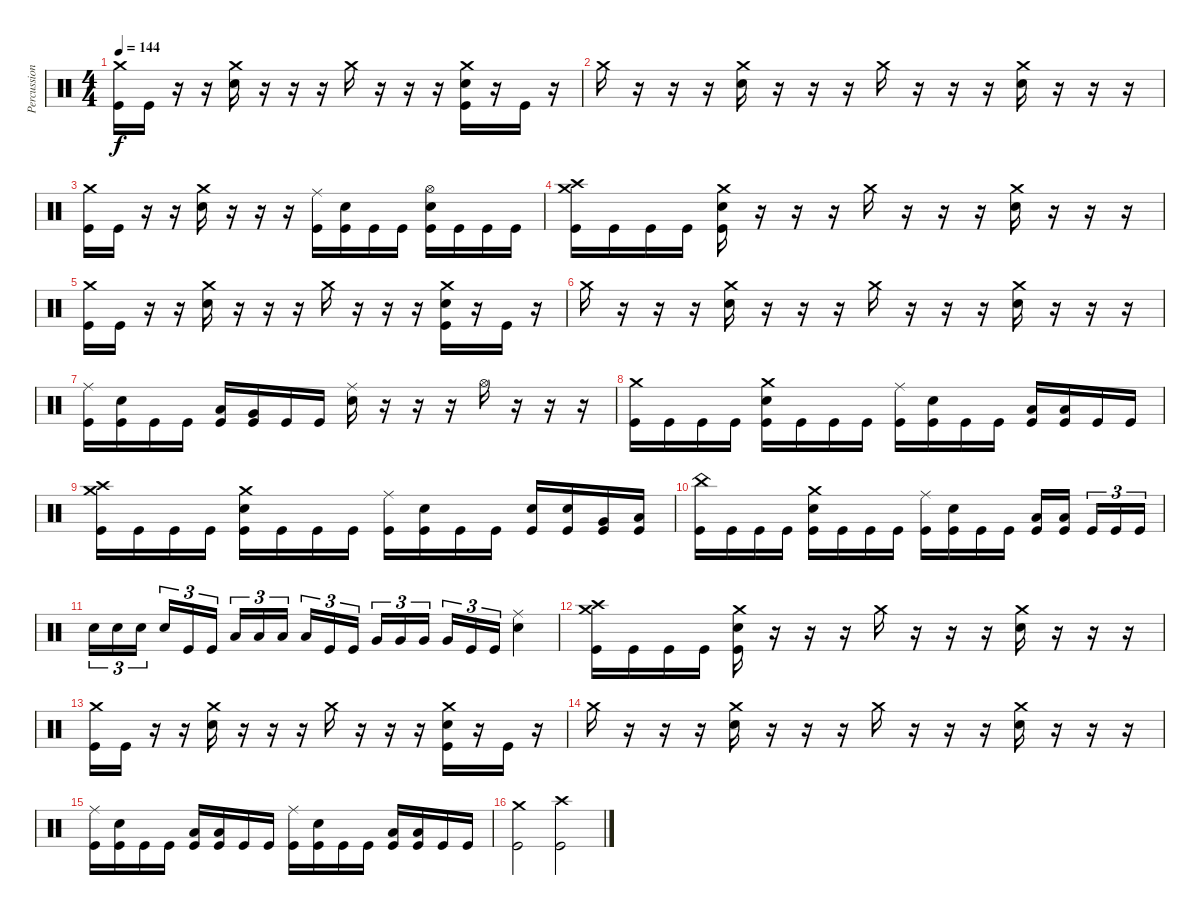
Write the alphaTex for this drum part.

\track ("Percussion" "Percussion") {instrument percussion}
\staff {score}
\articulation defaults
\ts (4 4)
\tempo 144
\clef neutral
\ks c
("Crash medium (hit)" "Kick (hit)").16{dy f} "Kick (hit)".16 r.16 r.16 ("Crash medium (hit)" "Electric Snare (hit)").16 r.16 r.16 r.16 "Crash medium (hit)".16 r.16 r.16 r.16 ("Crash medium (hit)" "Electric Snare (hit)" "Kick (hit)").16 r.16 "Kick (hit)".16 r.16 |
"Crash medium (hit)".16 r.16 r.16 r.16 ("Crash medium (hit)" "Electric Snare (hit)").16 r.16 r.16 r.16 "Crash medium (hit)".16 r.16 r.16 r.16 ("Crash medium (hit)" "Electric Snare (hit)").16 r.16 r.16 r.16 |
("Crash medium (hit)" "Kick (hit)").16 "Kick (hit)".16 r.16 r.16 ("Crash medium (hit)" "Electric Snare (hit)").16 r.16 r.16 r.16 ("Ride (middle)" "Kick (hit)").16 ("Electric Snare (hit)" "Kick (hit)").16 "Kick (hit)".16 "Kick (hit)".16 ("Hi-Hat (open)" "Electric Snare (hit)" "Kick (hit)").16 "Kick (hit)".16 "Kick (hit)".16 "Kick (hit)".16 |
("Crash high (hit)" "Crash medium (hit)" "Kick (hit)").16 "Kick (hit)".16 "Kick (hit)".16 "Kick (hit)".16 ("Crash medium (hit)" "Electric Snare (hit)" "Kick (hit)").16 r.16 r.16 r.16 "Crash medium (hit)".16 r.16 r.16 r.16 ("Crash medium (hit)" "Electric Snare (hit)").16 r.16 r.16 r.16 |
("Crash medium (hit)" "Kick (hit)").16 "Kick (hit)".16 r.16 r.16 ("Crash medium (hit)" "Electric Snare (hit)").16 r.16 r.16 r.16 "Crash medium (hit)".16 r.16 r.16 r.16 ("Crash medium (hit)" "Electric Snare (hit)" "Kick (hit)").16 r.16 "Kick (hit)".16 r.16 |
"Crash medium (hit)".16 r.16 r.16 r.16 ("Crash medium (hit)" "Electric Snare (hit)").16 r.16 r.16 r.16 "Crash medium (hit)".16 r.16 r.16 r.16 ("Crash medium (hit)" "Electric Snare (hit)").16 r.16 r.16 r.16 |
("Ride (middle)" "Kick (hit)").16 ("Electric Snare (hit)" "Kick (hit)").16 "Kick (hit)".16 "Kick (hit)".16 ("Low Tom (hit)" "Kick (hit)").16 ("Very Low Tom (hit)" "Kick (hit)").16 "Kick (hit)".16 "Kick (hit)".16 ("Ride (middle)" "Electric Snare (hit)").16 r.16 r.16 r.16 "Hi-Hat (open)".16 r.16 r.16 r.16 |
("Crash medium (hit)" "Kick (hit)").16 "Kick (hit)".16 "Kick (hit)".16 "Kick (hit)".16 ("Crash medium (hit)" "Electric Snare (hit)" "Kick (hit)").16 "Kick (hit)".16 "Kick (hit)".16 "Kick (hit)".16 ("Ride (middle)" "Kick (hit)").16 ("Electric Snare (hit)" "Kick (hit)").16 "Kick (hit)".16 "Kick (hit)".16 ("Low Floor Tom (hit)" "Kick (hit)").16 ("Low Floor Tom (hit)" "Kick (hit)").16 "Kick (hit)".16 "Kick (hit)".16 |
("Crash high (hit)" "Crash medium (hit)" "Kick (hit)").16 "Kick (hit)".16 "Kick (hit)".16 "Kick (hit)".16 ("Crash medium (hit)" "Electric Snare (hit)" "Kick (hit)").16 "Kick (hit)".16 "Kick (hit)".16 "Kick (hit)".16 ("Ride (middle)" "Kick (hit)").16 ("Electric Snare (hit)" "Kick (hit)").16 "Kick (hit)".16 "Kick (hit)".16 ("Electric Snare (hit)" "Kick (hit)").16 ("Electric Snare (hit)" "Kick (hit)").16 ("Very Low Tom (hit)" "Kick (hit)").16 ("Low Floor Tom (hit)" "Kick (hit)").16 |
("China (hit)" "Kick (hit)").16 "Kick (hit)".16 "Kick (hit)".16 "Kick (hit)".16 ("Crash medium (hit)" "Electric Snare (hit)" "Kick (hit)").16 "Kick (hit)".16 "Kick (hit)".16 "Kick (hit)".16 ("Ride (middle)" "Kick (hit)").16 ("Electric Snare (hit)" "Kick (hit)").16 "Kick (hit)".16 "Kick (hit)".16 ("Low Floor Tom (hit)" "Kick (hit)").16 ("Low Floor Tom (hit)" "Kick (hit)").16{beam splitsecondary} "Kick (hit)".16{tu (3 2)} "Kick (hit)".16{tu (3 2)} "Kick (hit)".16{tu (3 2)} |
"Electric Snare (hit)".16{tu (3 2)} "Electric Snare (hit)".16{tu (3 2)} "Electric Snare (hit)".16{tu (3 2) beam splitsecondary} "Electric Snare (hit)".16{tu (3 2)} "Kick (hit)".16{tu (3 2)} "Kick (hit)".16{tu (3 2)} "Low Tom (hit)".16{tu (3 2)} "Low Tom (hit)".16{tu (3 2)} "Low Tom (hit)".16{tu (3 2) beam splitsecondary} "Low Tom (hit)".16{tu (3 2)} "Kick (hit)".16{tu (3 2)} "Kick (hit)".16{tu (3 2)} "Very Low Tom (hit)".16{tu (3 2)} "Very Low Tom (hit)".16{tu (3 2)} "Very Low Tom (hit)".16{tu (3 2) beam splitsecondary} "Very Low Tom (hit)".16{tu (3 2)} "Kick (hit)".16{tu (3 2)} "Kick (hit)".16{tu (3 2)} ("Ride (middle)" "Electric Snare (hit)").4 |
("Crash high (hit)" "Crash medium (hit)" "Kick (hit)").16 "Kick (hit)".16 "Kick (hit)".16 "Kick (hit)".16 ("Crash medium (hit)" "Electric Snare (hit)" "Kick (hit)").16 r.16 r.16 r.16 "Crash medium (hit)".16 r.16 r.16 r.16 ("Crash medium (hit)" "Electric Snare (hit)").16 r.16 r.16 r.16 |
("Crash medium (hit)" "Kick (hit)").16 "Kick (hit)".16 r.16 r.16 ("Crash medium (hit)" "Electric Snare (hit)").16 r.16 r.16 r.16 "Crash medium (hit)".16 r.16 r.16 r.16 ("Crash medium (hit)" "Electric Snare (hit)" "Kick (hit)").16 r.16 "Kick (hit)".16 r.16 |
"Crash medium (hit)".16 r.16 r.16 r.16 ("Crash medium (hit)" "Electric Snare (hit)").16 r.16 r.16 r.16 "Crash medium (hit)".16 r.16 r.16 r.16 ("Crash medium (hit)" "Electric Snare (hit)").16 r.16 r.16 r.16 |
("Ride (middle)" "Kick (hit)").16 ("Electric Snare (hit)" "Kick (hit)").16 "Kick (hit)".16 "Kick (hit)".16 ("Low Floor Tom (hit)" "Kick (hit)").16 ("Low Tom (hit)" "Kick (hit)").16 "Kick (hit)".16 "Kick (hit)".16 ("Ride (middle)" "Kick (hit)").16 ("Electric Snare (hit)" "Kick (hit)").16 "Kick (hit)".16 "Kick (hit)".16 ("Low Floor Tom (hit)" "Kick (hit)").16 ("Low Tom (hit)" "Kick (hit)").16 "Kick (hit)".16 "Kick (hit)".16 |
("Crash medium (hit)" "Kick (hit)").2 ("Crash high (hit)" "Kick (hit)").2
